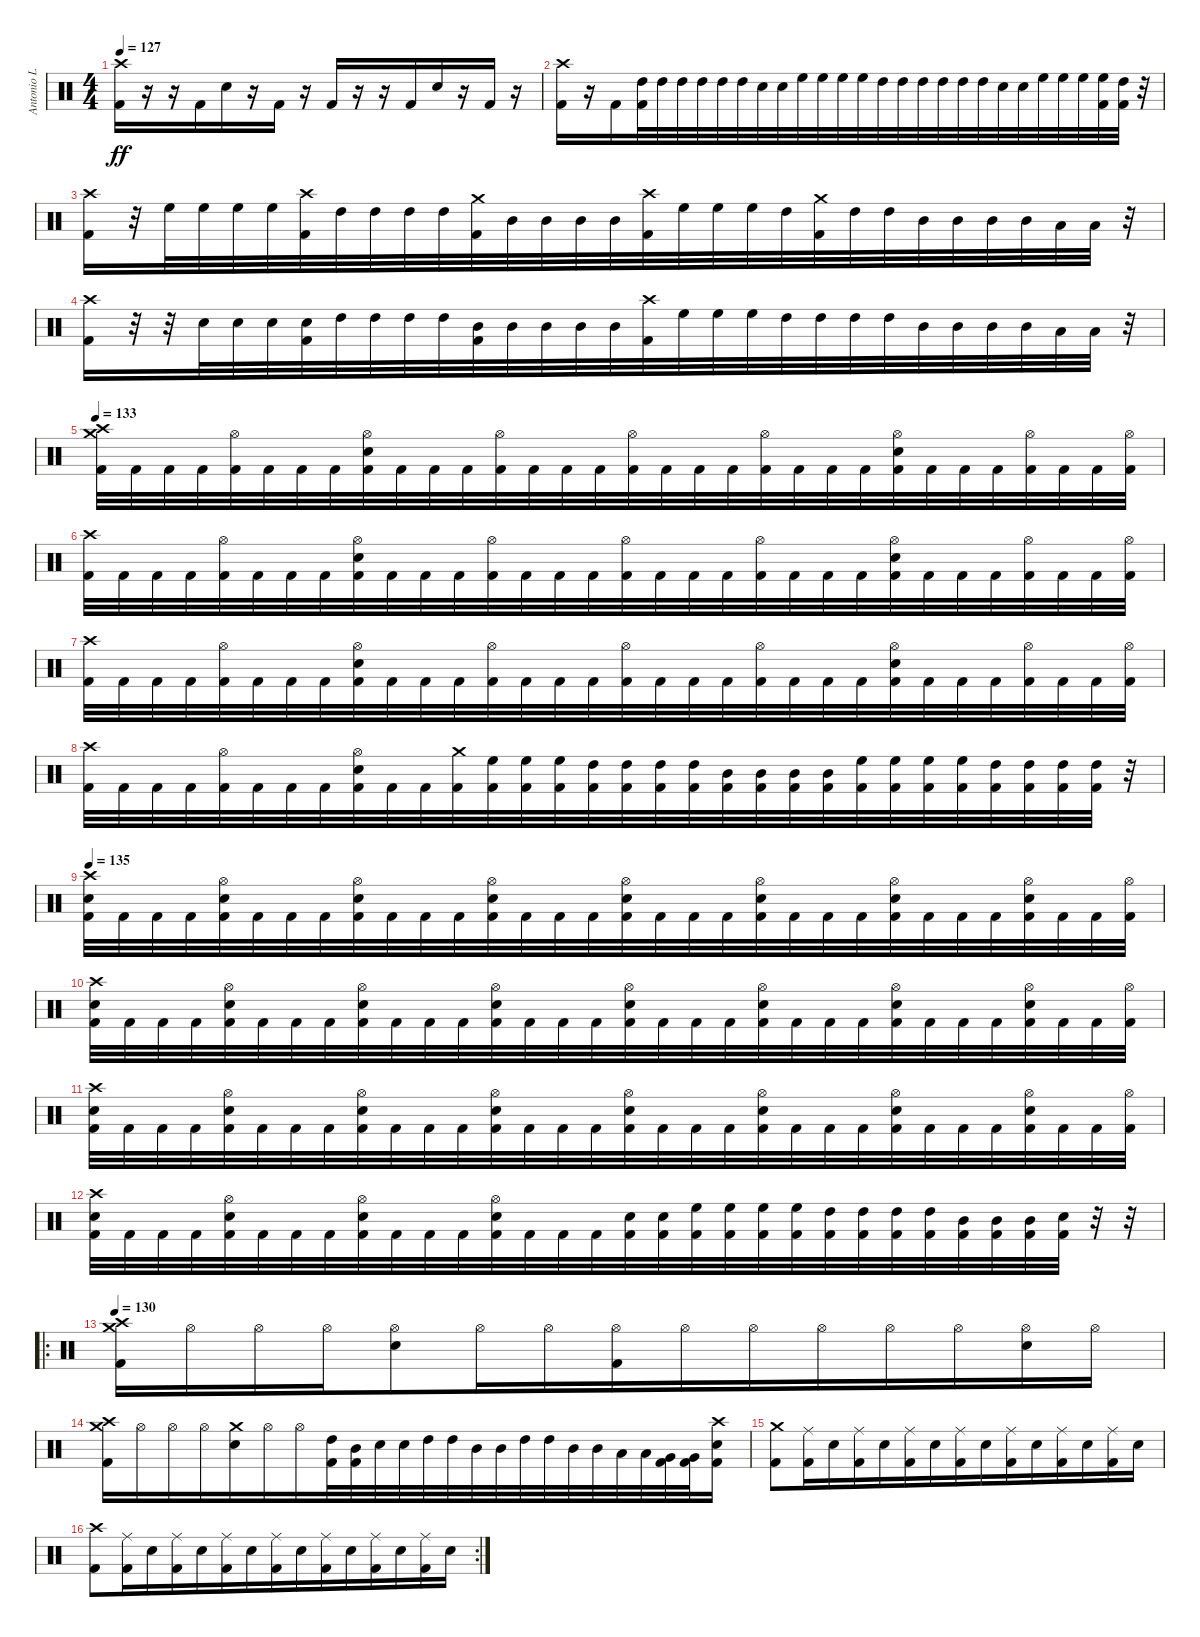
\track ("Antonio L" "Antonio L") {instrument percussion}
\staff {score}
\articulation defaults
\ts (4 4)
\tempo 127
\clef neutral
\ks c
("Crash high (hit)" "Kick (hit) 2").16{dy ff} r.16 r.16 "Kick (hit) 2".16{beam merge} "Electric Snare (hit)".16 r.16 "Kick (hit) 2".16 r.16 "Kick (hit) 2".16 r.16 r.16 "Kick (hit) 2".16{beam merge} "Electric Snare (hit)".16 r.16 "Kick (hit) 2".16 r.16 |
("Crash high (hit)" "Kick (hit) 2").16 r.16 "Kick (hit) 2".16 ("High Tom (hit)" "Kick (hit) 2").32 "High Tom (hit)".32{beam merge} "High Tom (hit)".32 "High Tom (hit)".32 "High Tom (hit)".32 "High Tom (hit)".32 "Electric Snare (hit)".32 "Electric Snare (hit)".32 "High Floor Tom (hit)".32 "High Floor Tom (hit)".32{beam merge} "High Floor Tom (hit)".32 "High Floor Tom (hit)".32 "High Tom (hit)".32 "High Tom (hit)".32 "High Tom (hit)".32 "High Tom (hit)".32 "High Tom (hit)".32 "High Tom (hit)".32{beam merge} "Electric Snare (hit)".32 "Electric Snare (hit)".32 "High Floor Tom (hit)".32 "High Floor Tom (hit)".32 "High Floor Tom (hit)".32 ("High Floor Tom (hit)" "Kick (hit) 2").32 ("High Tom (hit)" "Kick (hit) 2").32 r.32 |
("Crash high (hit)" "Kick (hit) 2").16 r.32 "High Floor Tom (hit)".32 "High Floor Tom (hit)".32 "High Floor Tom (hit)".32 "High Floor Tom (hit)".32 ("Crash high (hit)" "Kick (hit) 2").32{beam merge} "High Tom (hit)".32 "High Tom (hit)".32 "High Tom (hit)".32 "High Tom (hit)".32 ("Crash medium (hit)" "Kick (hit) 2").32 "Mid Tom (hit)".32 "Mid Tom (hit)".32 "Mid Tom (hit)".32{beam merge} "Mid Tom (hit)".32 ("Crash high (hit)" "Kick (hit) 2").32 "High Floor Tom (hit)".32 "High Floor Tom (hit)".32 "High Floor Tom (hit)".32 "High Tom (hit)".32 ("Crash medium (hit)" "Kick (hit) 2").32 "High Tom (hit)".32{beam merge} "High Tom (hit)".32 "Mid Tom (hit)".32 "Mid Tom (hit)".32 "Mid Tom (hit)".32 "Mid Tom (hit)".32 "Low Tom (hit)".32 "Low Tom (hit)".32 r.32 |
("Crash high (hit)" "Kick (hit) 2").16 r.32 r.32 "Electric Snare (hit)".32 "Electric Snare (hit)".32 "Electric Snare (hit)".32 ("Electric Snare (hit)" "Kick (hit) 2").32{beam merge} "High Tom (hit)".32 "High Tom (hit)".32 "High Tom (hit)".32 "High Tom (hit)".32 ("Mid Tom (hit)" "Kick (hit) 2").32 "Mid Tom (hit)".32 "Mid Tom (hit)".32 "Mid Tom (hit)".32{beam merge} "Mid Tom (hit)".32 ("Crash high (hit)" "Kick (hit) 2").32 "High Floor Tom (hit)".32 "High Floor Tom (hit)".32 "High Floor Tom (hit)".32 "High Tom (hit)".32 "High Tom (hit)".32 "High Tom (hit)".32{beam merge} "High Tom (hit)".32 "Mid Tom (hit)".32 "Mid Tom (hit)".32 "Mid Tom (hit)".32 "Mid Tom (hit)".32 "Low Tom (hit)".32 "Low Tom (hit)".32 r.32 |
\tempo 133
("Crash high (hit)" "Crash medium (hit)" "Kick (hit) 2").32 "Kick (hit) 2".32 "Kick (hit) 2".32 "Kick (hit) 2".32 ("Hi-Hat (open)" "Kick (hit) 2").32 "Kick (hit) 2".32 "Kick (hit) 2".32 "Kick (hit) 2".32{beam merge} ("Hi-Hat (open)" "Electric Snare (hit)" "Kick (hit) 2").32 "Kick (hit) 2".32 "Kick (hit) 2".32 "Kick (hit) 2".32 ("Hi-Hat (open)" "Kick (hit) 2").32 "Kick (hit) 2".32 "Kick (hit) 2".32 "Kick (hit) 2".32{beam merge} ("Hi-Hat (open)" "Kick (hit) 2").32 "Kick (hit) 2".32 "Kick (hit) 2".32 "Kick (hit) 2".32 ("Hi-Hat (open)" "Kick (hit) 2").32 "Kick (hit) 2".32 "Kick (hit) 2".32 "Kick (hit) 2".32{beam merge} ("Hi-Hat (open)" "Electric Snare (hit)" "Kick (hit) 2").32 "Kick (hit) 2".32 "Kick (hit) 2".32 "Kick (hit) 2".32 ("Hi-Hat (open)" "Kick (hit) 2").32 "Kick (hit) 2".32 "Kick (hit) 2".32 ("Hi-Hat (open)" "Kick (hit) 2").32 |
("Crash high (hit)" "Kick (hit) 2").32 "Kick (hit) 2".32 "Kick (hit) 2".32 "Kick (hit) 2".32 ("Hi-Hat (open)" "Kick (hit) 2").32 "Kick (hit) 2".32 "Kick (hit) 2".32 "Kick (hit) 2".32{beam merge} ("Hi-Hat (open)" "Electric Snare (hit)" "Kick (hit) 2").32 "Kick (hit) 2".32 "Kick (hit) 2".32 "Kick (hit) 2".32 ("Hi-Hat (open)" "Kick (hit) 2").32 "Kick (hit) 2".32 "Kick (hit) 2".32 "Kick (hit) 2".32{beam merge} ("Hi-Hat (open)" "Kick (hit) 2").32 "Kick (hit) 2".32 "Kick (hit) 2".32 "Kick (hit) 2".32 ("Hi-Hat (open)" "Kick (hit) 2").32 "Kick (hit) 2".32 "Kick (hit) 2".32 "Kick (hit) 2".32{beam merge} ("Hi-Hat (open)" "Electric Snare (hit)" "Kick (hit) 2").32 "Kick (hit) 2".32 "Kick (hit) 2".32 "Kick (hit) 2".32 ("Hi-Hat (open)" "Kick (hit) 2").32 "Kick (hit) 2".32 "Kick (hit) 2".32 ("Hi-Hat (open)" "Kick (hit) 2").32 |
("Crash high (hit)" "Kick (hit) 2").32 "Kick (hit) 2".32 "Kick (hit) 2".32 "Kick (hit) 2".32 ("Hi-Hat (open)" "Kick (hit) 2").32 "Kick (hit) 2".32 "Kick (hit) 2".32 "Kick (hit) 2".32{beam merge} ("Hi-Hat (open)" "Electric Snare (hit)" "Kick (hit) 2").32 "Kick (hit) 2".32 "Kick (hit) 2".32 "Kick (hit) 2".32 ("Hi-Hat (open)" "Kick (hit) 2").32 "Kick (hit) 2".32 "Kick (hit) 2".32 "Kick (hit) 2".32{beam merge} ("Hi-Hat (open)" "Kick (hit) 2").32 "Kick (hit) 2".32 "Kick (hit) 2".32 "Kick (hit) 2".32 ("Hi-Hat (open)" "Kick (hit) 2").32 "Kick (hit) 2".32 "Kick (hit) 2".32 "Kick (hit) 2".32{beam merge} ("Hi-Hat (open)" "Electric Snare (hit)" "Kick (hit) 2").32 "Kick (hit) 2".32 "Kick (hit) 2".32 "Kick (hit) 2".32 ("Hi-Hat (open)" "Kick (hit) 2").32 "Kick (hit) 2".32 "Kick (hit) 2".32 ("Hi-Hat (open)" "Kick (hit) 2").32 |
("Crash high (hit)" "Kick (hit) 2").32 "Kick (hit) 2".32 "Kick (hit) 2".32 "Kick (hit) 2".32 ("Hi-Hat (open)" "Kick (hit) 2").32 "Kick (hit) 2".32 "Kick (hit) 2".32 "Kick (hit) 2".32{beam merge} ("Hi-Hat (open)" "Electric Snare (hit)" "Kick (hit) 2").32 "Kick (hit) 2".32 "Kick (hit) 2".32 ("Crash medium (hit)" "Kick (hit) 2").32 ("High Floor Tom (hit)" "Kick (hit) 2").32 ("High Floor Tom (hit)" "Kick (hit) 2").32 ("High Floor Tom (hit)" "Kick (hit) 2").32 ("High Tom (hit)" "Kick (hit) 2").32{beam merge} ("High Tom (hit)" "Kick (hit) 2").32 ("High Tom (hit)" "Kick (hit) 2").32 ("High Tom (hit)" "Kick (hit) 2").32 ("Mid Tom (hit)" "Kick (hit) 2").32 ("Mid Tom (hit)" "Kick (hit) 2").32 ("Mid Tom (hit)" "Kick (hit) 2").32 ("Mid Tom (hit)" "Kick (hit) 2").32 ("High Floor Tom (hit)" "Kick (hit) 2").32{beam merge} ("High Floor Tom (hit)" "Kick (hit) 2").32 ("High Floor Tom (hit)" "Kick (hit) 2").32 ("High Floor Tom (hit)" "Kick (hit) 2").32 ("High Tom (hit)" "Kick (hit) 2").32 ("High Tom (hit)" "Kick (hit) 2").32 ("High Tom (hit)" "Kick (hit) 2").32 ("High Tom (hit)" "Kick (hit) 2").32 r.32 |
\tempo 135
("Crash high (hit)" "Electric Snare (hit)" "Kick (hit) 2").32 "Kick (hit) 2".32 "Kick (hit) 2".32 "Kick (hit) 2".32 ("Hi-Hat (open)" "Electric Snare (hit)" "Kick (hit) 2").32 "Kick (hit) 2".32 "Kick (hit) 2".32 "Kick (hit) 2".32{beam merge} ("Hi-Hat (open)" "Electric Snare (hit)" "Kick (hit) 2").32 "Kick (hit) 2".32 "Kick (hit) 2".32 "Kick (hit) 2".32 ("Hi-Hat (open)" "Electric Snare (hit)" "Kick (hit) 2").32 "Kick (hit) 2".32 "Kick (hit) 2".32 "Kick (hit) 2".32{beam merge} ("Hi-Hat (open)" "Electric Snare (hit)" "Kick (hit) 2").32 "Kick (hit) 2".32 "Kick (hit) 2".32 "Kick (hit) 2".32 ("Hi-Hat (open)" "Electric Snare (hit)" "Kick (hit) 2").32 "Kick (hit) 2".32 "Kick (hit) 2".32 "Kick (hit) 2".32{beam merge} ("Hi-Hat (open)" "Electric Snare (hit)" "Kick (hit) 2").32 "Kick (hit) 2".32 "Kick (hit) 2".32 "Kick (hit) 2".32 ("Hi-Hat (open)" "Electric Snare (hit)" "Kick (hit) 2").32 "Kick (hit) 2".32 "Kick (hit) 2".32 ("Hi-Hat (open)" "Kick (hit) 2").32 |
("Crash high (hit)" "Electric Snare (hit)" "Kick (hit) 2").32 "Kick (hit) 2".32 "Kick (hit) 2".32 "Kick (hit) 2".32 ("Hi-Hat (open)" "Electric Snare (hit)" "Kick (hit) 2").32 "Kick (hit) 2".32 "Kick (hit) 2".32 "Kick (hit) 2".32{beam merge} ("Hi-Hat (open)" "Electric Snare (hit)" "Kick (hit) 2").32 "Kick (hit) 2".32 "Kick (hit) 2".32 "Kick (hit) 2".32 ("Hi-Hat (open)" "Electric Snare (hit)" "Kick (hit) 2").32 "Kick (hit) 2".32 "Kick (hit) 2".32 "Kick (hit) 2".32{beam merge} ("Hi-Hat (open)" "Electric Snare (hit)" "Kick (hit) 2").32 "Kick (hit) 2".32 "Kick (hit) 2".32 "Kick (hit) 2".32 ("Hi-Hat (open)" "Electric Snare (hit)" "Kick (hit) 2").32 "Kick (hit) 2".32 "Kick (hit) 2".32 "Kick (hit) 2".32{beam merge} ("Hi-Hat (open)" "Electric Snare (hit)" "Kick (hit) 2").32 "Kick (hit) 2".32 "Kick (hit) 2".32 "Kick (hit) 2".32 ("Hi-Hat (open)" "Electric Snare (hit)" "Kick (hit) 2").32 "Kick (hit) 2".32 "Kick (hit) 2".32 ("Hi-Hat (open)" "Kick (hit) 2").32 |
("Crash high (hit)" "Electric Snare (hit)" "Kick (hit) 2").32 "Kick (hit) 2".32 "Kick (hit) 2".32 "Kick (hit) 2".32 ("Hi-Hat (open)" "Electric Snare (hit)" "Kick (hit) 2").32 "Kick (hit) 2".32 "Kick (hit) 2".32 "Kick (hit) 2".32{beam merge} ("Hi-Hat (open)" "Electric Snare (hit)" "Kick (hit) 2").32 "Kick (hit) 2".32 "Kick (hit) 2".32 "Kick (hit) 2".32 ("Hi-Hat (open)" "Electric Snare (hit)" "Kick (hit) 2").32 "Kick (hit) 2".32 "Kick (hit) 2".32 "Kick (hit) 2".32{beam merge} ("Hi-Hat (open)" "Electric Snare (hit)" "Kick (hit) 2").32 "Kick (hit) 2".32 "Kick (hit) 2".32 "Kick (hit) 2".32 ("Hi-Hat (open)" "Electric Snare (hit)" "Kick (hit) 2").32 "Kick (hit) 2".32 "Kick (hit) 2".32 "Kick (hit) 2".32{beam merge} ("Hi-Hat (open)" "Electric Snare (hit)" "Kick (hit) 2").32 "Kick (hit) 2".32 "Kick (hit) 2".32 "Kick (hit) 2".32 ("Hi-Hat (open)" "Electric Snare (hit)" "Kick (hit) 2").32 "Kick (hit) 2".32 "Kick (hit) 2".32 ("Hi-Hat (open)" "Kick (hit) 2").32 |
("Crash high (hit)" "Electric Snare (hit)" "Kick (hit) 2").32 "Kick (hit) 2".32 "Kick (hit) 2".32 "Kick (hit) 2".32 ("Hi-Hat (open)" "Electric Snare (hit)" "Kick (hit) 2").32 "Kick (hit) 2".32 "Kick (hit) 2".32 "Kick (hit) 2".32{beam merge} ("Hi-Hat (open)" "Electric Snare (hit)" "Kick (hit) 2").32 "Kick (hit) 2".32 "Kick (hit) 2".32 "Kick (hit) 2".32 ("Hi-Hat (open)" "Electric Snare (hit)" "Kick (hit) 2").32 "Kick (hit) 2".32 "Kick (hit) 2".32 "Kick (hit) 2".32{beam merge} ("Electric Snare (hit)" "Kick (hit) 2").32 ("Electric Snare (hit)" "Kick (hit) 2").32 ("High Floor Tom (hit)" "Kick (hit) 2").32 ("High Floor Tom (hit)" "Kick (hit) 2").32 ("High Floor Tom (hit)" "Kick (hit) 2").32 ("High Floor Tom (hit)" "Kick (hit) 2").32 ("High Tom (hit)" "Kick (hit) 2").32 ("High Tom (hit)" "Kick (hit) 2").32{beam merge} ("High Tom (hit)" "Kick (hit) 2").32 ("High Tom (hit)" "Kick (hit) 2").32 ("Mid Tom (hit)" "Kick (hit) 2").32 ("Mid Tom (hit)" "Kick (hit) 2").32 ("Mid Tom (hit)" "Kick (hit) 2").32 ("Electric Snare (hit)" "Kick (hit) 2").32 r.32 r.32 |
\ro
\tempo 130
("Crash medium (hit)" "Crash high (hit)" "Kick (hit) 2").16 "Hi-Hat (open)".16 "Hi-Hat (open)".16 "Hi-Hat (open)".16{beam merge} ("Hi-Hat (open)" "Electric Snare (hit)").8 "Hi-Hat (open)".16 "Hi-Hat (open)".16{beam merge} ("Hi-Hat (open)" "Kick (hit) 2").16 "Hi-Hat (open)".16 "Hi-Hat (open)".16 "Hi-Hat (open)".16{beam merge} "Hi-Hat (open)".16 "Hi-Hat (open)".16 ("Hi-Hat (open)" "Electric Snare (hit)").16 "Hi-Hat (open)".16 |
("Crash medium (hit)" "Crash high (hit)" "Kick (hit) 2").16 "Hi-Hat (open)".16 "Hi-Hat (open)".16 "Hi-Hat (open)".16{beam merge} ("Crash medium (hit)" "Electric Snare (hit)").16 "Hi-Hat (open)".16 "Hi-Hat (open)".16 ("High Tom (hit)" "Kick (hit) 2").32 ("Mid Tom (hit)" "Kick (hit) 2").32{beam merge} "Electric Snare (hit)".32 "Electric Snare (hit)".32 "High Tom (hit)".32 "High Tom (hit)".32 "Mid Tom (hit)".32 "Mid Tom (hit)".32 "High Tom (hit)".32 "High Tom (hit)".32{beam merge} "Mid Tom (hit)".32 "Mid Tom (hit)".32 "Low Tom (hit)".32 "Low Tom (hit)".32 ("Very Low Tom (hit)" "Kick (hit) 2").32 ("Very Low Tom (hit)" "Kick (hit) 2").32 ("Crash high (hit)" "Electric Snare (hit)" "Kick (hit) 2").16 |
("Crash medium (hit)" "Kick (hit) 2").8 ("Ride (middle)" "Kick (hit) 2").16 "Electric Snare (hit)".16{beam merge} ("Ride (middle)" "Kick (hit) 2").16 "Electric Snare (hit)".16 ("Ride (middle)" "Kick (hit) 2").16 "Electric Snare (hit)".16{beam merge} ("Ride (middle)" "Kick (hit) 2").16 "Electric Snare (hit)".16 ("Ride (middle)" "Kick (hit) 2").16 "Electric Snare (hit)".16{beam merge} ("Ride (middle)" "Kick (hit) 2").16 "Electric Snare (hit)".16 ("Ride (middle)" "Kick (hit) 2").16 "Electric Snare (hit)".16 |
\rc 2
("Crash high (hit)" "Kick (hit) 2").8 ("Ride (middle)" "Kick (hit) 2").16 "Electric Snare (hit)".16{beam merge} ("Ride (middle)" "Kick (hit) 2").16 "Electric Snare (hit)".16 ("Ride (middle)" "Kick (hit) 2").16 "Electric Snare (hit)".16{beam merge} ("Ride (middle)" "Kick (hit) 2").16 "Electric Snare (hit)".16 ("Ride (middle)" "Kick (hit) 2").16 "Electric Snare (hit)".16{beam merge} ("Ride (middle)" "Kick (hit) 2").16 "Electric Snare (hit)".16 ("Ride (middle)" "Kick (hit) 2").16 "Electric Snare (hit)".16
